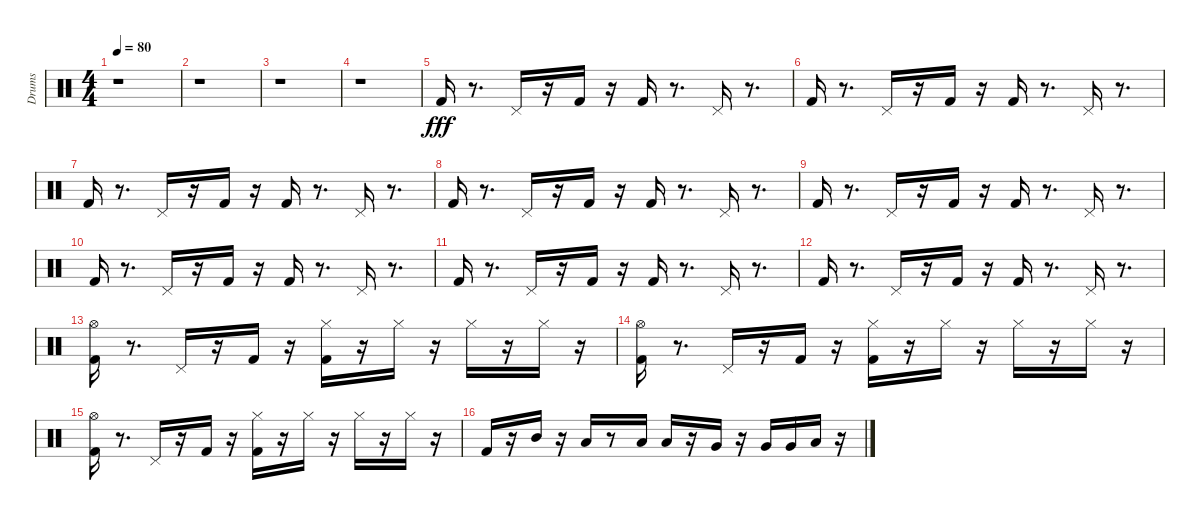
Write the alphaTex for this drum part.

\track ("Drums" "Drums") {instrument percussion}
\staff {score}
\articulation defaults
\ts (4 4)
\tempo 80
\clef neutral
\ks c
r.1{dy fff} |
r.1 |
r.1 |
r.1 |
"Kick (hit) 2".16 r.8{d} "Pedal Hi-Hat (hit)".16 r.16 "Kick (hit) 2".16 r.16 "Kick (hit) 2".16 r.8{d} "Pedal Hi-Hat (hit)".16 r.8{d} |
"Kick (hit) 2".16 r.8{d} "Pedal Hi-Hat (hit)".16 r.16 "Kick (hit) 2".16 r.16 "Kick (hit) 2".16 r.8{d} "Pedal Hi-Hat (hit)".16 r.8{d} |
"Kick (hit) 2".16 r.8{d} "Pedal Hi-Hat (hit)".16 r.16 "Kick (hit) 2".16 r.16 "Kick (hit) 2".16 r.8{d} "Pedal Hi-Hat (hit)".16 r.8{d} |
"Kick (hit) 2".16 r.8{d} "Pedal Hi-Hat (hit)".16 r.16 "Kick (hit) 2".16 r.16 "Kick (hit) 2".16 r.8{d} "Pedal Hi-Hat (hit)".16 r.8{d} |
"Kick (hit) 2".16 r.8{d} "Pedal Hi-Hat (hit)".16 r.16 "Kick (hit) 2".16 r.16 "Kick (hit) 2".16 r.8{d} "Pedal Hi-Hat (hit)".16 r.8{d} |
"Kick (hit) 2".16 r.8{d} "Pedal Hi-Hat (hit)".16 r.16 "Kick (hit) 2".16 r.16 "Kick (hit) 2".16 r.8{d} "Pedal Hi-Hat (hit)".16 r.8{d} |
"Kick (hit) 2".16 r.8{d} "Pedal Hi-Hat (hit)".16 r.16 "Kick (hit) 2".16 r.16 "Kick (hit) 2".16 r.8{d} "Pedal Hi-Hat (hit)".16 r.8{d} |
"Kick (hit) 2".16 r.8{d} "Pedal Hi-Hat (hit)".16 r.16 "Kick (hit) 2".16 r.16 "Kick (hit) 2".16 r.8{d} "Pedal Hi-Hat (hit)".16 r.8{d} |
("Kick (hit) 2" "Hi-Hat (open)").16 r.8{d} "Pedal Hi-Hat (hit)".16 r.16 "Kick (hit) 2".16 r.16 ("Kick (hit) 2" "Hi-Hat (closed)").16 r.16 "Hi-Hat (closed)".16 r.16 "Hi-Hat (closed)".16 r.16 "Hi-Hat (closed)".16 r.16 |
("Kick (hit) 2" "Hi-Hat (open)").16 r.8{d} "Pedal Hi-Hat (hit)".16 r.16 "Kick (hit) 2".16 r.16 ("Kick (hit) 2" "Hi-Hat (closed)").16 r.16 "Hi-Hat (closed)".16 r.16 "Hi-Hat (closed)".16 r.16 "Hi-Hat (closed)".16 r.16 |
("Kick (hit) 2" "Hi-Hat (open)").16 r.8{d} "Pedal Hi-Hat (hit)".16 r.16 "Kick (hit) 2".16 r.16 ("Kick (hit) 2" "Hi-Hat (closed)").16 r.16 "Hi-Hat (closed)".16 r.16 "Hi-Hat (closed)".16 r.16 "Hi-Hat (closed)".16 r.16 |
"Kick (hit) 2".16 r.16 "Mid Tom (hit)".16 r.16 "Low Tom (hit)".16 r.8 "Low Tom (hit)".16 "Low Tom (hit)".16 r.16 "Very Low Tom (hit)".16 r.16 "Very Low Tom (hit)".16 "Very Low Tom (hit)".16 "Low Floor Tom (hit)".16 r.16
